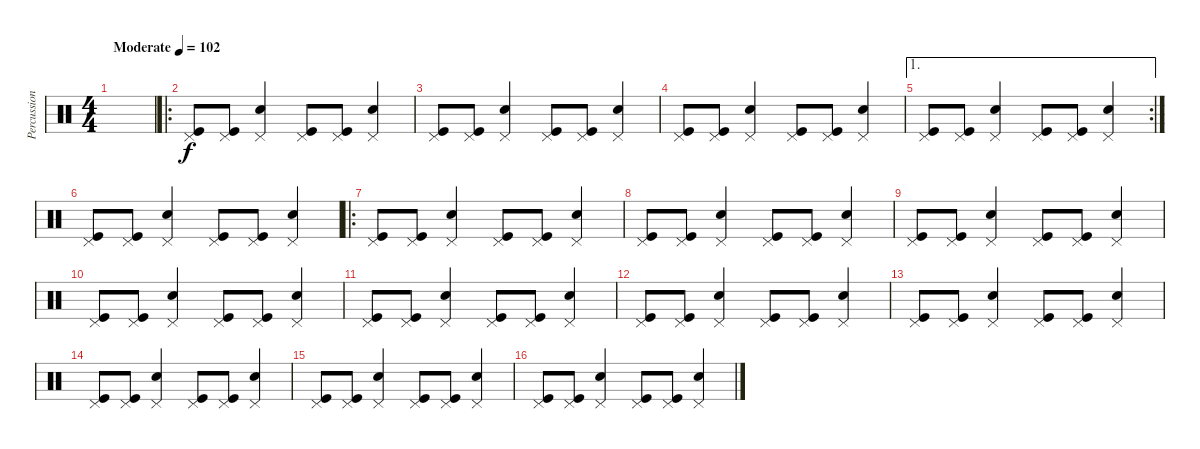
\track ("Percussion" "Percussion") {instrument percussion}
\staff {score}
\articulation defaults
\ts (4 4)
\tempo (102 "Moderate")
\clef neutral
\ks c
|
\ro
("Kick (hit)" "Pedal Hi-Hat (hit)").8 ("Pedal Hi-Hat (hit)" "Kick (hit)").8 ("Pedal Hi-Hat (hit)" "Snare (hit) 2").4 ("Kick (hit)" "Pedal Hi-Hat (hit)").8 ("Kick (hit)" "Pedal Hi-Hat (hit)").8 ("Snare (hit) 2" "Pedal Hi-Hat (hit)").4 |
("Kick (hit)" "Pedal Hi-Hat (hit)").8 ("Pedal Hi-Hat (hit)" "Kick (hit)").8 ("Pedal Hi-Hat (hit)" "Snare (hit) 2").4 ("Kick (hit)" "Pedal Hi-Hat (hit)").8 ("Kick (hit)" "Pedal Hi-Hat (hit)").8 ("Snare (hit) 2" "Pedal Hi-Hat (hit)").4 |
("Kick (hit)" "Pedal Hi-Hat (hit)").8 ("Pedal Hi-Hat (hit)" "Kick (hit)").8 ("Pedal Hi-Hat (hit)" "Snare (hit) 2").4 ("Kick (hit)" "Pedal Hi-Hat (hit)").8 ("Kick (hit)" "Pedal Hi-Hat (hit)").8 ("Snare (hit) 2" "Pedal Hi-Hat (hit)").4 |
\ae 1
\rc 2
("Kick (hit)" "Pedal Hi-Hat (hit)").8 ("Pedal Hi-Hat (hit)" "Kick (hit)").8 ("Pedal Hi-Hat (hit)" "Snare (hit) 2").4 ("Kick (hit)" "Pedal Hi-Hat (hit)").8 ("Kick (hit)" "Pedal Hi-Hat (hit)").8 ("Snare (hit) 2" "Pedal Hi-Hat (hit)").4 |
("Kick (hit)" "Pedal Hi-Hat (hit)").8 ("Pedal Hi-Hat (hit)" "Kick (hit)").8 ("Pedal Hi-Hat (hit)" "Snare (hit) 2").4 ("Kick (hit)" "Pedal Hi-Hat (hit)").8 ("Kick (hit)" "Pedal Hi-Hat (hit)").8 ("Snare (hit) 2" "Pedal Hi-Hat (hit)").4 |
\ro
("Kick (hit)" "Pedal Hi-Hat (hit)").8 ("Pedal Hi-Hat (hit)" "Kick (hit)").8 ("Pedal Hi-Hat (hit)" "Snare (hit) 2").4 ("Kick (hit)" "Pedal Hi-Hat (hit)").8 ("Kick (hit)" "Pedal Hi-Hat (hit)").8 ("Snare (hit) 2" "Pedal Hi-Hat (hit)").4 |
("Kick (hit)" "Pedal Hi-Hat (hit)").8 ("Pedal Hi-Hat (hit)" "Kick (hit)").8 ("Pedal Hi-Hat (hit)" "Snare (hit) 2").4 ("Kick (hit)" "Pedal Hi-Hat (hit)").8 ("Kick (hit)" "Pedal Hi-Hat (hit)").8 ("Snare (hit) 2" "Pedal Hi-Hat (hit)").4 |
("Kick (hit)" "Pedal Hi-Hat (hit)").8 ("Pedal Hi-Hat (hit)" "Kick (hit)").8 ("Pedal Hi-Hat (hit)" "Snare (hit) 2").4 ("Kick (hit)" "Pedal Hi-Hat (hit)").8 ("Kick (hit)" "Pedal Hi-Hat (hit)").8 ("Snare (hit) 2" "Pedal Hi-Hat (hit)").4 |
("Kick (hit)" "Pedal Hi-Hat (hit)").8 ("Pedal Hi-Hat (hit)" "Kick (hit)").8 ("Pedal Hi-Hat (hit)" "Snare (hit) 2").4 ("Kick (hit)" "Pedal Hi-Hat (hit)").8 ("Kick (hit)" "Pedal Hi-Hat (hit)").8 ("Snare (hit) 2" "Pedal Hi-Hat (hit)").4 |
("Kick (hit)" "Pedal Hi-Hat (hit)").8 ("Pedal Hi-Hat (hit)" "Kick (hit)").8 ("Pedal Hi-Hat (hit)" "Snare (hit) 2").4 ("Kick (hit)" "Pedal Hi-Hat (hit)").8 ("Kick (hit)" "Pedal Hi-Hat (hit)").8 ("Snare (hit) 2" "Pedal Hi-Hat (hit)").4 |
("Kick (hit)" "Pedal Hi-Hat (hit)").8 ("Pedal Hi-Hat (hit)" "Kick (hit)").8 ("Pedal Hi-Hat (hit)" "Snare (hit) 2").4 ("Kick (hit)" "Pedal Hi-Hat (hit)").8 ("Kick (hit)" "Pedal Hi-Hat (hit)").8 ("Snare (hit) 2" "Pedal Hi-Hat (hit)").4 |
("Kick (hit)" "Pedal Hi-Hat (hit)").8 ("Pedal Hi-Hat (hit)" "Kick (hit)").8 ("Pedal Hi-Hat (hit)" "Snare (hit) 2").4 ("Kick (hit)" "Pedal Hi-Hat (hit)").8 ("Kick (hit)" "Pedal Hi-Hat (hit)").8 ("Snare (hit) 2" "Pedal Hi-Hat (hit)").4 |
("Kick (hit)" "Pedal Hi-Hat (hit)").8 ("Pedal Hi-Hat (hit)" "Kick (hit)").8 ("Pedal Hi-Hat (hit)" "Snare (hit) 2").4 ("Kick (hit)" "Pedal Hi-Hat (hit)").8 ("Kick (hit)" "Pedal Hi-Hat (hit)").8 ("Snare (hit) 2" "Pedal Hi-Hat (hit)").4 |
("Kick (hit)" "Pedal Hi-Hat (hit)").8 ("Pedal Hi-Hat (hit)" "Kick (hit)").8 ("Pedal Hi-Hat (hit)" "Snare (hit) 2").4 ("Kick (hit)" "Pedal Hi-Hat (hit)").8 ("Kick (hit)" "Pedal Hi-Hat (hit)").8 ("Snare (hit) 2" "Pedal Hi-Hat (hit)").4 |
("Kick (hit)" "Pedal Hi-Hat (hit)").8 ("Pedal Hi-Hat (hit)" "Kick (hit)").8 ("Pedal Hi-Hat (hit)" "Snare (hit) 2").4 ("Kick (hit)" "Pedal Hi-Hat (hit)").8 ("Kick (hit)" "Pedal Hi-Hat (hit)").8 ("Snare (hit) 2" "Pedal Hi-Hat (hit)").4
